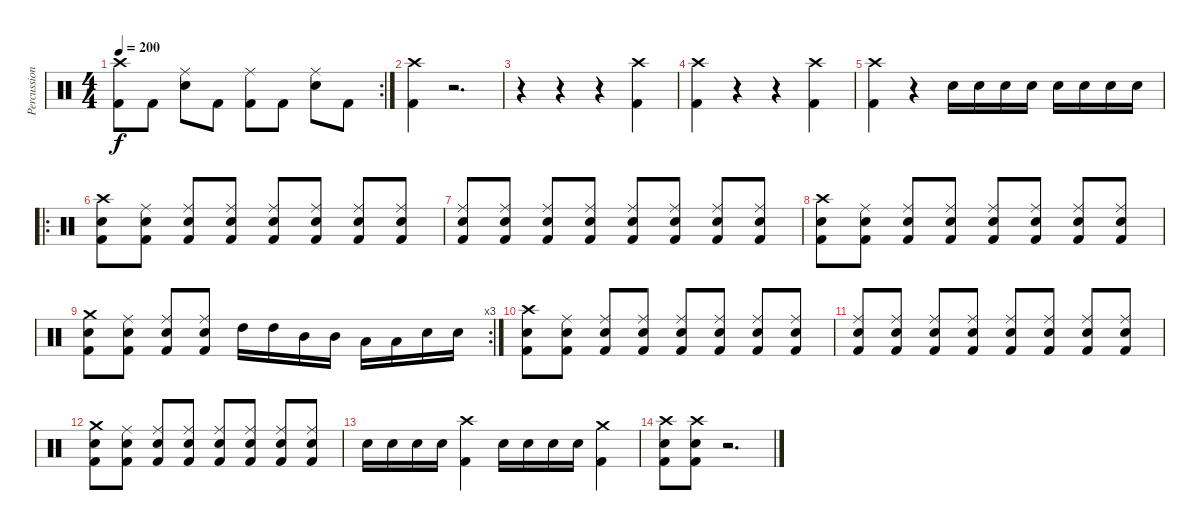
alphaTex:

\track ("Percussions" "Percussion") {instrument percussion}
\staff {score}
\articulation defaults
\rc 2
\ts (4 4)
\tempo 200
\clef neutral
\ks c
("Crash high (hit)" "Kick (hit) 2").8{dy f} "Kick (hit) 2".8 ("Ride (middle)" "Snare (hit) 2").8 "Kick (hit) 2".8 ("Ride (middle)" "Kick (hit) 2").8 "Kick (hit) 2".8 ("Ride (middle)" "Snare (hit) 2").8 "Kick (hit) 2".8 |
("Crash high (hit)" "Kick (hit) 2").4 r.2{d} |
r.4 r.4 r.4 ("Crash high (hit)" "Kick (hit) 2").4 |
("Crash high (hit)" "Kick (hit) 2").4 r.4 r.4 ("Crash high (hit)" "Kick (hit) 2").4 |
("Crash high (hit)" "Kick (hit) 2").4 r.4 "Snare (hit) 2".16 "Snare (hit) 2".16 "Snare (hit) 2".16 "Snare (hit) 2".16 "Snare (hit) 2".16 "Snare (hit) 2".16 "Snare (hit) 2".16 "Snare (hit) 2".16 |
\ro
("Crash high (hit)" "Snare (hit) 2" "Kick (hit) 2").8 ("Ride (middle)" "Snare (hit) 2" "Kick (hit) 2").8 ("Ride (middle)" "Snare (hit) 2" "Kick (hit) 2").8 ("Ride (middle)" "Snare (hit) 2" "Kick (hit) 2").8 ("Ride (middle)" "Snare (hit) 2" "Kick (hit) 2").8 ("Ride (middle)" "Snare (hit) 2" "Kick (hit) 2").8 ("Ride (middle)" "Snare (hit) 2" "Kick (hit) 2").8 ("Ride (middle)" "Snare (hit) 2" "Kick (hit) 2").8 |
("Ride (middle)" "Snare (hit) 2" "Kick (hit) 2").8 ("Ride (middle)" "Snare (hit) 2" "Kick (hit) 2").8 ("Ride (middle)" "Snare (hit) 2" "Kick (hit) 2").8 ("Ride (middle)" "Snare (hit) 2" "Kick (hit) 2").8 ("Ride (middle)" "Snare (hit) 2" "Kick (hit) 2").8 ("Ride (middle)" "Snare (hit) 2" "Kick (hit) 2").8 ("Ride (middle)" "Snare (hit) 2" "Kick (hit) 2").8 ("Ride (middle)" "Snare (hit) 2" "Kick (hit) 2").8 |
("Crash high (hit)" "Snare (hit) 2" "Kick (hit) 2").8 ("Ride (middle)" "Snare (hit) 2" "Kick (hit) 2").8 ("Ride (middle)" "Snare (hit) 2" "Kick (hit) 2").8 ("Ride (middle)" "Snare (hit) 2" "Kick (hit) 2").8 ("Ride (middle)" "Snare (hit) 2" "Kick (hit) 2").8 ("Ride (middle)" "Snare (hit) 2" "Kick (hit) 2").8 ("Ride (middle)" "Snare (hit) 2" "Kick (hit) 2").8 ("Ride (middle)" "Snare (hit) 2" "Kick (hit) 2").8 |
\rc 3
("Crash medium (hit)" "Snare (hit) 2" "Kick (hit) 2").8 ("Ride (middle)" "Snare (hit) 2" "Kick (hit) 2").8 ("Ride (middle)" "Snare (hit) 2" "Kick (hit) 2").8 ("Ride (middle)" "Snare (hit) 2" "Kick (hit) 2").8 "High Tom (hit)".16 "High Tom (hit)".16 "Mid Tom (hit)".16 "Mid Tom (hit)".16 "Low Tom (hit)".16 "Low Tom (hit)".16 "Snare (hit) 2".16 "Snare (hit) 2".16 |
("Crash high (hit)" "Snare (hit) 2" "Kick (hit) 2").8 ("Ride (middle)" "Snare (hit) 2" "Kick (hit) 2").8 ("Ride (middle)" "Snare (hit) 2" "Kick (hit) 2").8 ("Ride (middle)" "Snare (hit) 2" "Kick (hit) 2").8 ("Ride (middle)" "Snare (hit) 2" "Kick (hit) 2").8 ("Ride (middle)" "Snare (hit) 2" "Kick (hit) 2").8 ("Ride (middle)" "Snare (hit) 2" "Kick (hit) 2").8 ("Ride (middle)" "Snare (hit) 2" "Kick (hit) 2").8 |
("Ride (middle)" "Snare (hit) 2" "Kick (hit) 2").8 ("Ride (middle)" "Snare (hit) 2" "Kick (hit) 2").8 ("Ride (middle)" "Snare (hit) 2" "Kick (hit) 2").8 ("Ride (middle)" "Snare (hit) 2" "Kick (hit) 2").8 ("Ride (middle)" "Snare (hit) 2" "Kick (hit) 2").8 ("Ride (middle)" "Snare (hit) 2" "Kick (hit) 2").8 ("Ride (middle)" "Snare (hit) 2" "Kick (hit) 2").8 ("Ride (middle)" "Snare (hit) 2" "Kick (hit) 2").8 |
("Crash medium (hit)" "Snare (hit) 2" "Kick (hit) 2").8 ("Ride (middle)" "Snare (hit) 2" "Kick (hit) 2").8 ("Ride (middle)" "Snare (hit) 2" "Kick (hit) 2").8 ("Ride (middle)" "Snare (hit) 2" "Kick (hit) 2").8 ("Ride (middle)" "Snare (hit) 2" "Kick (hit) 2").8 ("Ride (middle)" "Snare (hit) 2" "Kick (hit) 2").8 ("Ride (middle)" "Snare (hit) 2" "Kick (hit) 2").8 ("Ride (middle)" "Snare (hit) 2" "Kick (hit) 2").8 |
"Snare (hit) 2".16 "Snare (hit) 2".16 "Snare (hit) 2".16 "Snare (hit) 2".16 ("Crash high (hit)" "Kick (hit) 2").4 "Snare (hit) 2".16 "Snare (hit) 2".16 "Snare (hit) 2".16 "Snare (hit) 2".16 ("Crash medium (hit)" "Kick (hit) 2").4 |
("Crash high (hit)" "Snare (hit) 2" "Kick (hit) 2").8 ("Crash high (hit)" "Snare (hit) 2" "Kick (hit) 2").8 r.2{d}
